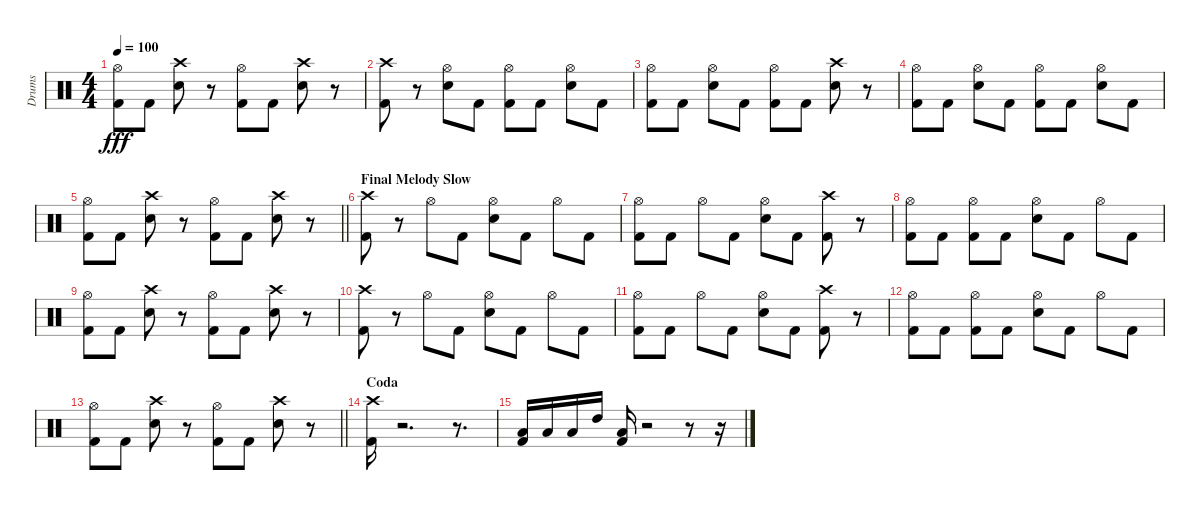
\track ("Drums" "Drums") {instrument percussion}
\staff {score}
\articulation defaults
\ts (4 4)
\tempo 100
\clef neutral
\ks c
("Hi-Hat (open)" "Kick (hit) 2").8{dy fff} "Kick (hit) 2".8 ("Crash high (hit)" "Snare (hit) 2").8 r.8 ("Hi-Hat (open)" "Kick (hit) 2").8 "Kick (hit) 2".8 ("Crash high (hit)" "Snare (hit) 2").8 r.8 |
("Kick (hit) 2" "Crash high (hit)").8 r.8 ("Hi-Hat (open)" "Snare (hit) 2").8 "Kick (hit) 2".8 ("Hi-Hat (open)" "Kick (hit) 2").8 "Kick (hit) 2".8 ("Snare (hit) 2" "Hi-Hat (open)").8 "Kick (hit) 2".8 |
("Hi-Hat (open)" "Kick (hit) 2").8 "Kick (hit) 2".8 ("Hi-Hat (open)" "Snare (hit) 2").8 "Kick (hit) 2".8 ("Hi-Hat (open)" "Kick (hit) 2").8 "Kick (hit) 2".8 ("Snare (hit) 2" "Crash high (hit)").8 r.8 |
("Hi-Hat (open)" "Kick (hit) 2").8 "Kick (hit) 2".8 ("Hi-Hat (open)" "Snare (hit) 2").8 "Kick (hit) 2".8 ("Hi-Hat (open)" "Kick (hit) 2").8 "Kick (hit) 2".8 ("Hi-Hat (open)" "Snare (hit) 2").8 "Kick (hit) 2".8 |
\barLineRight lightlight
("Hi-Hat (open)" "Kick (hit) 2").8 "Kick (hit) 2".8 ("Crash high (hit)" "Snare (hit) 2").8 r.8 ("Hi-Hat (open)" "Kick (hit) 2").8 "Kick (hit) 2".8 ("Crash high (hit)" "Snare (hit) 2").8 r.8 |
\section ("" "Final Melody Slow")
("Kick (hit) 2" "Crash high (hit)").8 r.8 "Hi-Hat (open)".8 "Kick (hit) 2".8 ("Snare (hit) 2" "Hi-Hat (open)").8 "Kick (hit) 2".8 "Hi-Hat (open)".8 "Kick (hit) 2".8 |
("Hi-Hat (open)" "Kick (hit) 2").8 "Kick (hit) 2".8 "Hi-Hat (open)".8 "Kick (hit) 2".8 ("Hi-Hat (open)" "Snare (hit) 2").8 "Kick (hit) 2".8 ("Crash high (hit)" "Kick (hit) 2").8 r.8 |
("Hi-Hat (open)" "Kick (hit) 2").8 "Kick (hit) 2".8 ("Hi-Hat (open)" "Kick (hit) 2").8 "Kick (hit) 2".8 ("Hi-Hat (open)" "Snare (hit) 2").8 "Kick (hit) 2".8 "Hi-Hat (open)".8 "Kick (hit) 2".8 |
("Hi-Hat (open)" "Kick (hit) 2").8 "Kick (hit) 2".8 ("Crash high (hit)" "Snare (hit) 2").8 r.8 ("Hi-Hat (open)" "Kick (hit) 2").8 "Kick (hit) 2".8 ("Crash high (hit)" "Snare (hit) 2").8 r.8 |
("Kick (hit) 2" "Crash high (hit)").8 r.8 "Hi-Hat (open)".8 "Kick (hit) 2".8 ("Snare (hit) 2" "Hi-Hat (open)").8 "Kick (hit) 2".8 "Hi-Hat (open)".8 "Kick (hit) 2".8 |
("Hi-Hat (open)" "Kick (hit) 2").8 "Kick (hit) 2".8 "Hi-Hat (open)".8 "Kick (hit) 2".8 ("Hi-Hat (open)" "Snare (hit) 2").8 "Kick (hit) 2".8 ("Crash high (hit)" "Kick (hit) 2").8 r.8 |
("Hi-Hat (open)" "Kick (hit) 2").8 "Kick (hit) 2".8 ("Hi-Hat (open)" "Kick (hit) 2").8 "Kick (hit) 2".8 ("Hi-Hat (open)" "Snare (hit) 2").8 "Kick (hit) 2".8 "Hi-Hat (open)".8 "Kick (hit) 2".8 |
\barLineRight lightlight
("Hi-Hat (open)" "Kick (hit) 2").8 "Kick (hit) 2".8 ("Crash high (hit)" "Snare (hit) 2").8 r.8 ("Hi-Hat (open)" "Kick (hit) 2").8 "Kick (hit) 2".8 ("Crash high (hit)" "Snare (hit) 2").8 r.8 |
\section ("" "Coda")
("Kick (hit) 2" "Crash high (hit)").16 r.2{d} r.8{d} |
("Kick (hit) 2" "Low Tom (hit)").16 "Low Tom (hit)".16 "Low Tom (hit)".16 "High Tom (hit)".16 ("Low Tom (hit)" "Kick (hit) 2").16 r.2 r.8 r.16
